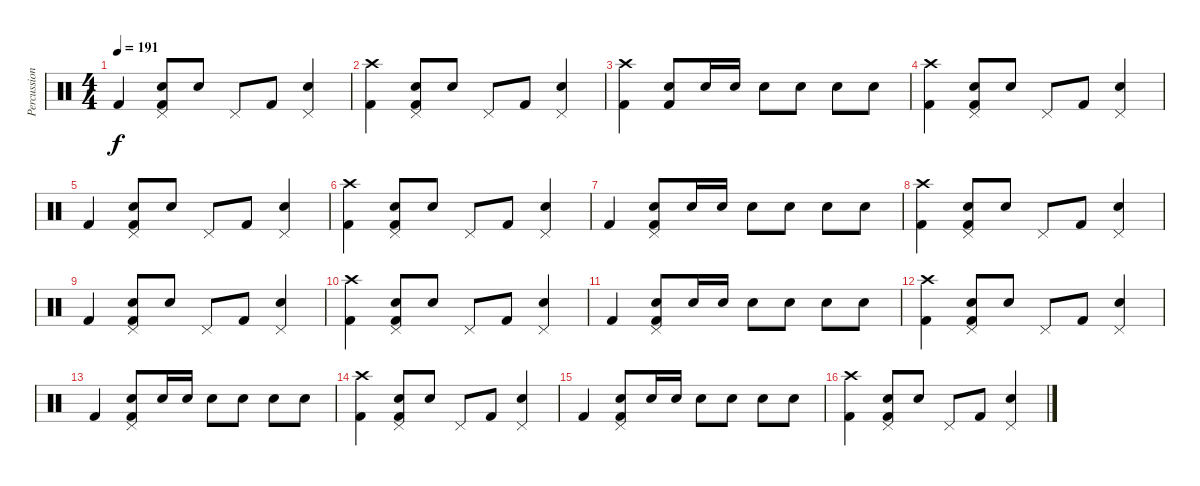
\track ("Percussion" "Percussion") {instrument percussion}
\staff {score}
\articulation defaults
\ts (4 4)
\tempo 191
\clef neutral
\ks c "Kick (hit) 2".4{dy f}
("Pedal Hi-Hat (hit)" "Snare (hit) 2" "Kick (hit) 2").8 "Snare (hit) 2".8 "Pedal Hi-Hat (hit)".8 "Kick (hit) 2".8 ("Pedal Hi-Hat (hit)" "Snare (hit) 2").4 |
("Crash high (hit)" "Kick (hit) 2").4 ("Pedal Hi-Hat (hit)" "Snare (hit) 2" "Kick (hit) 2").8 "Snare (hit) 2".8 "Pedal Hi-Hat (hit)".8 "Kick (hit) 2".8 ("Pedal Hi-Hat (hit)" "Snare (hit) 2").4 |
("Crash high (hit)" "Kick (hit) 2").4 ("Snare (hit) 2" "Kick (hit) 2").8 "Snare (hit) 2".16 "Snare (hit) 2".16 "Snare (hit) 2".8 "Snare (hit) 2".8 "Snare (hit) 2".8 "Snare (hit) 2".8 |
("Crash high (hit)" "Kick (hit) 2").4 ("Pedal Hi-Hat (hit)" "Snare (hit) 2" "Kick (hit) 2").8 "Snare (hit) 2".8 "Pedal Hi-Hat (hit)".8 "Kick (hit) 2".8 ("Pedal Hi-Hat (hit)" "Snare (hit) 2").4 |
"Kick (hit) 2".4 ("Pedal Hi-Hat (hit)" "Snare (hit) 2" "Kick (hit) 2").8 "Snare (hit) 2".8 "Pedal Hi-Hat (hit)".8 "Kick (hit) 2".8 ("Pedal Hi-Hat (hit)" "Snare (hit) 2").4 |
("Crash high (hit)" "Kick (hit) 2").4 ("Pedal Hi-Hat (hit)" "Snare (hit) 2" "Kick (hit) 2").8 "Snare (hit) 2".8 "Pedal Hi-Hat (hit)".8 "Kick (hit) 2".8 ("Pedal Hi-Hat (hit)" "Snare (hit) 2").4 |
"Kick (hit) 2".4 ("Pedal Hi-Hat (hit)" "Snare (hit) 2" "Kick (hit) 2").8 "Snare (hit) 2".16 "Snare (hit) 2".16 "Snare (hit) 2".8 "Snare (hit) 2".8 "Snare (hit) 2".8 "Snare (hit) 2".8 |
("Crash high (hit)" "Kick (hit) 2").4 ("Pedal Hi-Hat (hit)" "Snare (hit) 2" "Kick (hit) 2").8 "Snare (hit) 2".8 "Pedal Hi-Hat (hit)".8 "Kick (hit) 2".8 ("Pedal Hi-Hat (hit)" "Snare (hit) 2").4 |
"Kick (hit) 2".4 ("Pedal Hi-Hat (hit)" "Snare (hit) 2" "Kick (hit) 2").8 "Snare (hit) 2".8 "Pedal Hi-Hat (hit)".8 "Kick (hit) 2".8 ("Pedal Hi-Hat (hit)" "Snare (hit) 2").4 |
("Crash high (hit)" "Kick (hit) 2").4 ("Pedal Hi-Hat (hit)" "Snare (hit) 2" "Kick (hit) 2").8 "Snare (hit) 2".8 "Pedal Hi-Hat (hit)".8 "Kick (hit) 2".8 ("Pedal Hi-Hat (hit)" "Snare (hit) 2").4 |
"Kick (hit) 2".4 ("Pedal Hi-Hat (hit)" "Snare (hit) 2" "Kick (hit) 2").8 "Snare (hit) 2".16 "Snare (hit) 2".16 "Snare (hit) 2".8 "Snare (hit) 2".8 "Snare (hit) 2".8 "Snare (hit) 2".8 |
("Crash high (hit)" "Kick (hit) 2").4 ("Pedal Hi-Hat (hit)" "Snare (hit) 2" "Kick (hit) 2").8 "Snare (hit) 2".8 "Pedal Hi-Hat (hit)".8 "Kick (hit) 2".8 ("Pedal Hi-Hat (hit)" "Snare (hit) 2").4 |
"Kick (hit) 2".4 ("Pedal Hi-Hat (hit)" "Snare (hit) 2" "Kick (hit) 2").8 "Snare (hit) 2".16 "Snare (hit) 2".16 "Snare (hit) 2".8 "Snare (hit) 2".8 "Snare (hit) 2".8 "Snare (hit) 2".8 |
("Crash high (hit)" "Kick (hit) 2").4 ("Pedal Hi-Hat (hit)" "Snare (hit) 2" "Kick (hit) 2").8 "Snare (hit) 2".8 "Pedal Hi-Hat (hit)".8 "Kick (hit) 2".8 ("Pedal Hi-Hat (hit)" "Snare (hit) 2").4 |
"Kick (hit) 2".4 ("Pedal Hi-Hat (hit)" "Snare (hit) 2" "Kick (hit) 2").8 "Snare (hit) 2".16 "Snare (hit) 2".16 "Snare (hit) 2".8 "Snare (hit) 2".8 "Snare (hit) 2".8 "Snare (hit) 2".8 |
("Crash high (hit)" "Kick (hit) 2").4 ("Pedal Hi-Hat (hit)" "Snare (hit) 2" "Kick (hit) 2").8 "Snare (hit) 2".8 "Pedal Hi-Hat (hit)".8 "Kick (hit) 2".8 ("Pedal Hi-Hat (hit)" "Snare (hit) 2").4
